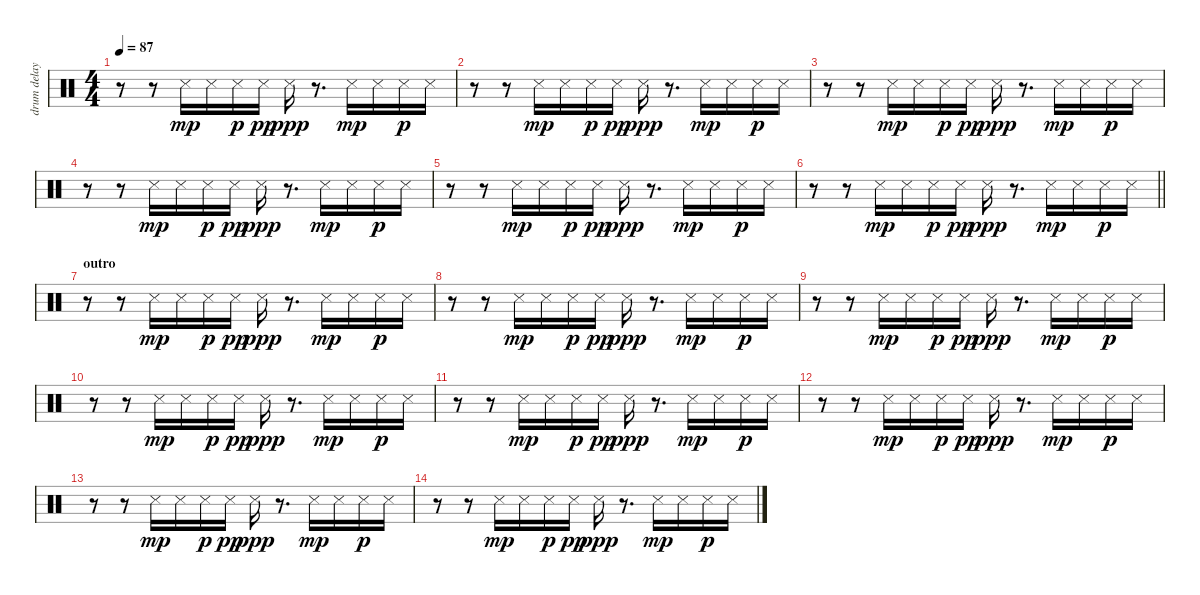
\track ("drum delay" "drum delay") {instrument percussion}
\staff {score}
\articulation defaults
\ts (4 4)
\tempo 87
\clef neutral
\ks c
r.8{dy p} r.8 "Snare (side stick) 3".16{dy mp} "Snare (side stick) 3".16 "Snare (side stick) 3".16{dy p} "Snare (side stick) 3".16{dy pp} "Snare (side stick) 3".16{dy ppp} r.8{d} "Snare (side stick) 3".16{dy mp} "Snare (side stick) 3".16 "Snare (side stick) 3".16{dy p} "Snare (side stick) 3".16 |
r.8 r.8 "Snare (side stick) 3".16{dy mp} "Snare (side stick) 3".16 "Snare (side stick) 3".16{dy p} "Snare (side stick) 3".16{dy pp} "Snare (side stick) 3".16{dy ppp} r.8{d} "Snare (side stick) 3".16{dy mp} "Snare (side stick) 3".16 "Snare (side stick) 3".16{dy p} "Snare (side stick) 3".16 |
r.8 r.8 "Snare (side stick) 3".16{dy mp} "Snare (side stick) 3".16 "Snare (side stick) 3".16{dy p} "Snare (side stick) 3".16{dy pp} "Snare (side stick) 3".16{dy ppp} r.8{d} "Snare (side stick) 3".16{dy mp} "Snare (side stick) 3".16 "Snare (side stick) 3".16{dy p} "Snare (side stick) 3".16 |
r.8 r.8 "Snare (side stick) 3".16{dy mp} "Snare (side stick) 3".16 "Snare (side stick) 3".16{dy p} "Snare (side stick) 3".16{dy pp} "Snare (side stick) 3".16{dy ppp} r.8{d} "Snare (side stick) 3".16{dy mp} "Snare (side stick) 3".16 "Snare (side stick) 3".16{dy p} "Snare (side stick) 3".16 |
r.8 r.8 "Snare (side stick) 3".16{dy mp} "Snare (side stick) 3".16 "Snare (side stick) 3".16{dy p} "Snare (side stick) 3".16{dy pp} "Snare (side stick) 3".16{dy ppp} r.8{d} "Snare (side stick) 3".16{dy mp} "Snare (side stick) 3".16 "Snare (side stick) 3".16{dy p} "Snare (side stick) 3".16 |
\barLineRight lightlight
r.8 r.8 "Snare (side stick) 3".16{dy mp} "Snare (side stick) 3".16 "Snare (side stick) 3".16{dy p} "Snare (side stick) 3".16{dy pp} "Snare (side stick) 3".16{dy ppp} r.8{d} "Snare (side stick) 3".16{dy mp} "Snare (side stick) 3".16 "Snare (side stick) 3".16{dy p} "Snare (side stick) 3".16 |
\section ("" "outro")
r.8{volume 6} r.8 "Snare (side stick) 3".16{dy mp} "Snare (side stick) 3".16 "Snare (side stick) 3".16{dy p} "Snare (side stick) 3".16{dy pp} "Snare (side stick) 3".16{dy ppp} r.8{d} "Snare (side stick) 3".16{dy mp} "Snare (side stick) 3".16 "Snare (side stick) 3".16{dy p} "Snare (side stick) 3".16 |
r.8 r.8 "Snare (side stick) 3".16{dy mp} "Snare (side stick) 3".16 "Snare (side stick) 3".16{dy p} "Snare (side stick) 3".16{dy pp} "Snare (side stick) 3".16{dy ppp} r.8{d} "Snare (side stick) 3".16{dy mp} "Snare (side stick) 3".16 "Snare (side stick) 3".16{dy p} "Snare (side stick) 3".16 |
r.8 r.8 "Snare (side stick) 3".16{dy mp} "Snare (side stick) 3".16 "Snare (side stick) 3".16{dy p} "Snare (side stick) 3".16{dy pp} "Snare (side stick) 3".16{dy ppp} r.8{d} "Snare (side stick) 3".16{dy mp} "Snare (side stick) 3".16 "Snare (side stick) 3".16{dy p} "Snare (side stick) 3".16 |
r.8 r.8 "Snare (side stick) 3".16{dy mp} "Snare (side stick) 3".16 "Snare (side stick) 3".16{dy p} "Snare (side stick) 3".16{dy pp} "Snare (side stick) 3".16{dy ppp} r.8{d} "Snare (side stick) 3".16{dy mp} "Snare (side stick) 3".16 "Snare (side stick) 3".16{dy p} "Snare (side stick) 3".16 |
r.8 r.8 "Snare (side stick) 3".16{dy mp} "Snare (side stick) 3".16 "Snare (side stick) 3".16{dy p} "Snare (side stick) 3".16{dy pp} "Snare (side stick) 3".16{dy ppp} r.8{d} "Snare (side stick) 3".16{dy mp} "Snare (side stick) 3".16 "Snare (side stick) 3".16{dy p} "Snare (side stick) 3".16 |
r.8 r.8 "Snare (side stick) 3".16{dy mp} "Snare (side stick) 3".16 "Snare (side stick) 3".16{dy p} "Snare (side stick) 3".16{dy pp} "Snare (side stick) 3".16{dy ppp} r.8{d} "Snare (side stick) 3".16{dy mp} "Snare (side stick) 3".16 "Snare (side stick) 3".16{dy p} "Snare (side stick) 3".16 |
r.8 r.8 "Snare (side stick) 3".16{dy mp} "Snare (side stick) 3".16 "Snare (side stick) 3".16{dy p} "Snare (side stick) 3".16{dy pp} "Snare (side stick) 3".16{dy ppp} r.8{d} "Snare (side stick) 3".16{dy mp} "Snare (side stick) 3".16 "Snare (side stick) 3".16{dy p} "Snare (side stick) 3".16 |
r.8 r.8 "Snare (side stick) 3".16{dy mp} "Snare (side stick) 3".16 "Snare (side stick) 3".16{dy p} "Snare (side stick) 3".16{dy pp} "Snare (side stick) 3".16{dy ppp} r.8{d} "Snare (side stick) 3".16{dy mp} "Snare (side stick) 3".16 "Snare (side stick) 3".16{dy p} "Snare (side stick) 3".16
